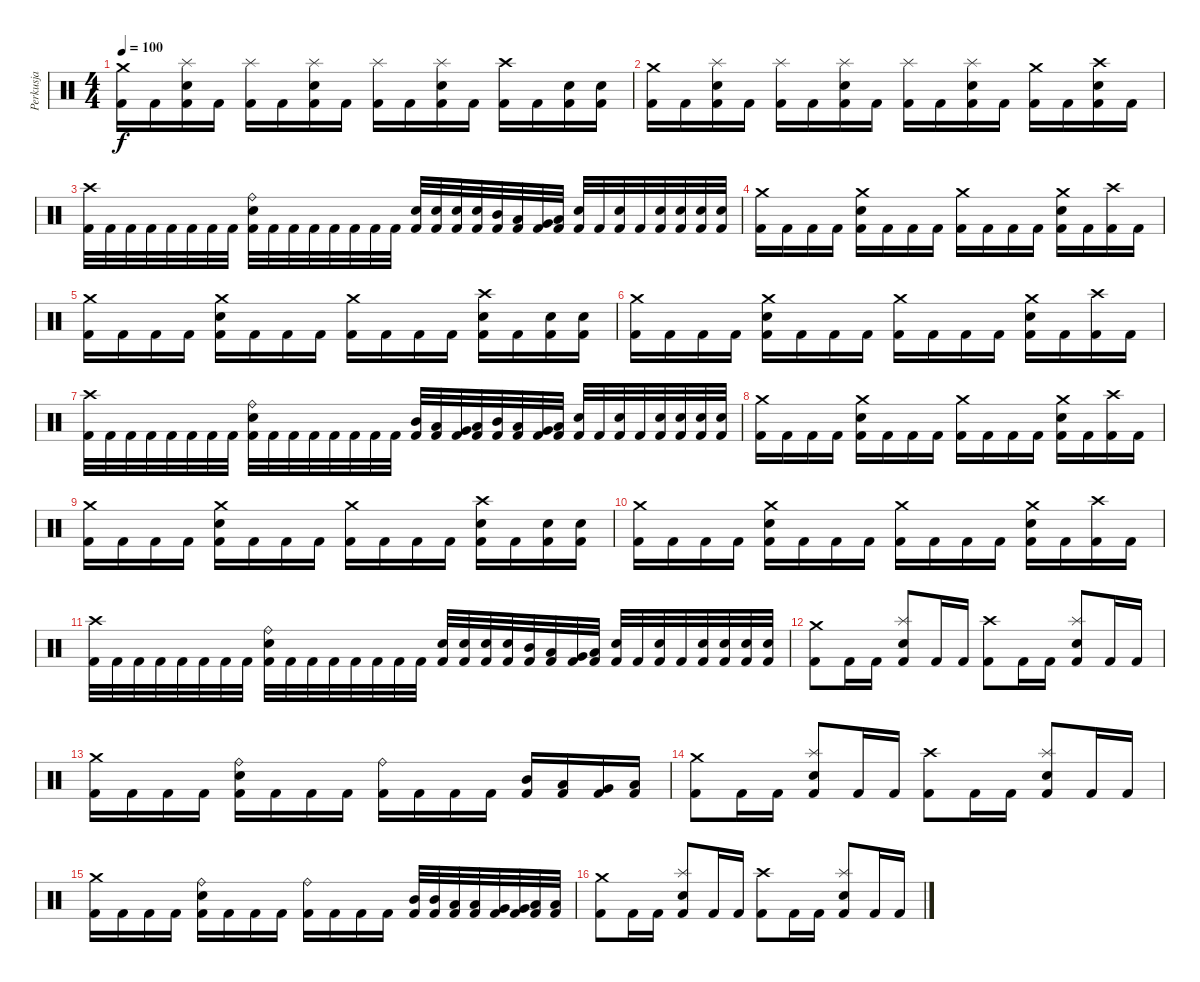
\track ("Perkusja" "Perkusja") {instrument percussion}
\staff {score}
\articulation defaults
\ts (4 4)
\tempo 100
\clef neutral
\ks c
("Crash medium (hit)" "Kick (hit) 2").16{dy f} "Kick (hit) 2".16 ("Splash (hit)" "Electric Snare (hit)" "Kick (hit) 2").16 "Kick (hit) 2".16 ("Splash (hit)" "Kick (hit) 2").16 "Kick (hit) 2".16 ("Splash (hit)" "Electric Snare (hit)" "Kick (hit) 2").16 "Kick (hit) 2".16 ("Splash (hit)" "Kick (hit) 2").16 "Kick (hit) 2".16 ("Splash (hit)" "Electric Snare (hit)" "Kick (hit) 2").16 "Kick (hit) 2".16 ("Crash high (hit)" "Kick (hit) 2").16 "Kick (hit) 2".16 ("Electric Snare (hit)" "Kick (hit) 2").16 ("Electric Snare (hit)" "Kick (hit) 2").16 |
("Crash medium (hit)" "Kick (hit) 2").16 "Kick (hit) 2".16 ("Splash (hit)" "Electric Snare (hit)" "Kick (hit) 2").16 "Kick (hit) 2".16 ("Splash (hit)" "Kick (hit) 2").16 "Kick (hit) 2".16 ("Splash (hit)" "Electric Snare (hit)" "Kick (hit) 2").16 "Kick (hit) 2".16 ("Splash (hit)" "Kick (hit) 2").16 "Kick (hit) 2".16 ("Splash (hit)" "Electric Snare (hit)" "Kick (hit) 2").16 "Kick (hit) 2".16 ("Crash medium (hit)" "Kick (hit) 2").16 "Kick (hit) 2".16 ("Crash high (hit)" "Electric Snare (hit)" "Kick (hit) 2").16 "Kick (hit) 2".16 |
("Crash high (hit)" "Kick (hit) 2").32 "Kick (hit) 2".32 "Kick (hit) 2".32 "Kick (hit) 2".32 "Kick (hit) 2".32 "Kick (hit) 2".32 "Kick (hit) 2".32 "Kick (hit) 2".32 ("Ride (bell)" "Electric Snare (hit)" "Kick (hit) 2").32 "Kick (hit) 2".32 "Kick (hit) 2".32 "Kick (hit) 2".32 "Kick (hit) 2".32 "Kick (hit) 2".32 "Kick (hit) 2".32 "Kick (hit) 2".32 ("Electric Snare (hit)" "Kick (hit) 2").32 ("Electric Snare (hit)" "Kick (hit) 2").32 ("Electric Snare (hit)" "Kick (hit) 2").32 ("Electric Snare (hit)" "Kick (hit) 2").32 ("Mid Tom (hit)" "Kick (hit) 2").32 ("Low Tom (hit)" "Kick (hit) 2").32 ("Very Low Tom (hit)" "Kick (hit) 2").32 ("Low Floor Tom (hit)" "Kick (hit) 2").32 ("Electric Snare (hit)" "Kick (hit) 2").32 "Kick (hit) 2".32 ("Electric Snare (hit)" "Kick (hit) 2").32 "Kick (hit) 2".32 ("Electric Snare (hit)" "Kick (hit) 2").32 ("Electric Snare (hit)" "Kick (hit) 2").32 ("Electric Snare (hit)" "Kick (hit) 2").32 ("Electric Snare (hit)" "Kick (hit) 2").32 |
("Crash medium (hit)" "Kick (hit) 2").16 "Kick (hit) 2".16 "Kick (hit) 2".16 "Kick (hit) 2".16 ("Crash medium (hit)" "Electric Snare (hit)" "Kick (hit) 2").16 "Kick (hit) 2".16 "Kick (hit) 2".16 "Kick (hit) 2".16 ("Crash medium (hit)" "Kick (hit) 2").16 "Kick (hit) 2".16 "Kick (hit) 2".16 "Kick (hit) 2".16 ("Crash medium (hit)" "Electric Snare (hit)" "Kick (hit) 2").16 "Kick (hit) 2".16 ("Crash high (hit)" "Kick (hit) 2").16 "Kick (hit) 2".16 |
("Crash medium (hit)" "Kick (hit) 2").16 "Kick (hit) 2".16 "Kick (hit) 2".16 "Kick (hit) 2".16 ("Crash medium (hit)" "Electric Snare (hit)" "Kick (hit) 2").16 "Kick (hit) 2".16 "Kick (hit) 2".16 "Kick (hit) 2".16 ("Crash medium (hit)" "Kick (hit) 2").16 "Kick (hit) 2".16 "Kick (hit) 2".16 "Kick (hit) 2".16 ("Crash high (hit)" "Electric Snare (hit)" "Kick (hit) 2").16 "Kick (hit) 2".16 ("Electric Snare (hit)" "Kick (hit) 2").16 ("Electric Snare (hit)" "Kick (hit) 2").16 |
("Crash medium (hit)" "Kick (hit) 2").16 "Kick (hit) 2".16 "Kick (hit) 2".16 "Kick (hit) 2".16 ("Crash medium (hit)" "Electric Snare (hit)" "Kick (hit) 2").16 "Kick (hit) 2".16 "Kick (hit) 2".16 "Kick (hit) 2".16 ("Crash medium (hit)" "Kick (hit) 2").16 "Kick (hit) 2".16 "Kick (hit) 2".16 "Kick (hit) 2".16 ("Crash medium (hit)" "Electric Snare (hit)" "Kick (hit) 2").16 "Kick (hit) 2".16 ("Crash high (hit)" "Kick (hit) 2").16 "Kick (hit) 2".16 |
("Crash high (hit)" "Kick (hit) 2").32 "Kick (hit) 2".32 "Kick (hit) 2".32 "Kick (hit) 2".32 "Kick (hit) 2".32 "Kick (hit) 2".32 "Kick (hit) 2".32 "Kick (hit) 2".32 ("Ride (bell)" "Electric Snare (hit)" "Kick (hit) 2").32 "Kick (hit) 2".32 "Kick (hit) 2".32 "Kick (hit) 2".32 "Kick (hit) 2".32 "Kick (hit) 2".32 "Kick (hit) 2".32 "Kick (hit) 2".32 ("Mid Tom (hit)" "Kick (hit) 2").32 ("Low Tom (hit)" "Kick (hit) 2").32 ("Very Low Tom (hit)" "Kick (hit) 2").32 ("Low Floor Tom (hit)" "Kick (hit) 2").32 ("Mid Tom (hit)" "Kick (hit) 2").32 ("Low Tom (hit)" "Kick (hit) 2").32 ("Very Low Tom (hit)" "Kick (hit) 2").32 ("Low Floor Tom (hit)" "Kick (hit) 2").32 ("Electric Snare (hit)" "Kick (hit) 2").32 "Kick (hit) 2".32 ("Electric Snare (hit)" "Kick (hit) 2").32 "Kick (hit) 2".32 ("Electric Snare (hit)" "Kick (hit) 2").32 ("Electric Snare (hit)" "Kick (hit) 2").32 ("Electric Snare (hit)" "Kick (hit) 2").32 ("Electric Snare (hit)" "Kick (hit) 2").32 |
("Crash medium (hit)" "Kick (hit) 2").16 "Kick (hit) 2".16 "Kick (hit) 2".16 "Kick (hit) 2".16 ("Crash medium (hit)" "Electric Snare (hit)" "Kick (hit) 2").16 "Kick (hit) 2".16 "Kick (hit) 2".16 "Kick (hit) 2".16 ("Crash medium (hit)" "Kick (hit) 2").16 "Kick (hit) 2".16 "Kick (hit) 2".16 "Kick (hit) 2".16 ("Crash medium (hit)" "Electric Snare (hit)" "Kick (hit) 2").16 "Kick (hit) 2".16 ("Crash high (hit)" "Kick (hit) 2").16 "Kick (hit) 2".16 |
("Crash medium (hit)" "Kick (hit) 2").16 "Kick (hit) 2".16 "Kick (hit) 2".16 "Kick (hit) 2".16 ("Crash medium (hit)" "Electric Snare (hit)" "Kick (hit) 2").16 "Kick (hit) 2".16 "Kick (hit) 2".16 "Kick (hit) 2".16 ("Crash medium (hit)" "Kick (hit) 2").16 "Kick (hit) 2".16 "Kick (hit) 2".16 "Kick (hit) 2".16 ("Crash high (hit)" "Electric Snare (hit)" "Kick (hit) 2").16 "Kick (hit) 2".16 ("Electric Snare (hit)" "Kick (hit) 2").16 ("Electric Snare (hit)" "Kick (hit) 2").16 |
("Crash medium (hit)" "Kick (hit) 2").16 "Kick (hit) 2".16 "Kick (hit) 2".16 "Kick (hit) 2".16 ("Crash medium (hit)" "Electric Snare (hit)" "Kick (hit) 2").16 "Kick (hit) 2".16 "Kick (hit) 2".16 "Kick (hit) 2".16 ("Crash medium (hit)" "Kick (hit) 2").16 "Kick (hit) 2".16 "Kick (hit) 2".16 "Kick (hit) 2".16 ("Crash medium (hit)" "Electric Snare (hit)" "Kick (hit) 2").16 "Kick (hit) 2".16 ("Crash high (hit)" "Kick (hit) 2").16 "Kick (hit) 2".16 |
("Crash high (hit)" "Kick (hit) 2").32 "Kick (hit) 2".32 "Kick (hit) 2".32 "Kick (hit) 2".32 "Kick (hit) 2".32 "Kick (hit) 2".32 "Kick (hit) 2".32 "Kick (hit) 2".32 ("Ride (bell)" "Electric Snare (hit)" "Kick (hit) 2").32 "Kick (hit) 2".32 "Kick (hit) 2".32 "Kick (hit) 2".32 "Kick (hit) 2".32 "Kick (hit) 2".32 "Kick (hit) 2".32 "Kick (hit) 2".32 ("Electric Snare (hit)" "Kick (hit) 2").32 ("Electric Snare (hit)" "Kick (hit) 2").32 ("Electric Snare (hit)" "Kick (hit) 2").32 ("Electric Snare (hit)" "Kick (hit) 2").32 ("Mid Tom (hit)" "Kick (hit) 2").32 ("Low Tom (hit)" "Kick (hit) 2").32 ("Very Low Tom (hit)" "Kick (hit) 2").32 ("Low Floor Tom (hit)" "Kick (hit) 2").32 ("Electric Snare (hit)" "Kick (hit) 2").32 "Kick (hit) 2".32 ("Electric Snare (hit)" "Kick (hit) 2").32 "Kick (hit) 2".32 ("Electric Snare (hit)" "Kick (hit) 2").32 ("Electric Snare (hit)" "Kick (hit) 2").32 ("Electric Snare (hit)" "Kick (hit) 2").32 ("Electric Snare (hit)" "Kick (hit) 2").32 |
("Crash medium (hit)" "Kick (hit) 2").8 "Kick (hit) 2".16 "Kick (hit) 2".16 ("Splash (hit)" "Electric Snare (hit)" "Kick (hit) 2").8 "Kick (hit) 2".16 "Kick (hit) 2".16 ("Crash high (hit)" "Kick (hit) 2").8 "Kick (hit) 2".16 "Kick (hit) 2".16 ("Splash (hit)" "Electric Snare (hit)" "Kick (hit) 2").8 "Kick (hit) 2".16 "Kick (hit) 2".16 |
("Crash medium (hit)" "Kick (hit) 2").16 "Kick (hit) 2".16 "Kick (hit) 2".16 "Kick (hit) 2".16 ("Ride (bell)" "Electric Snare (hit)" "Kick (hit) 2").16 "Kick (hit) 2".16 "Kick (hit) 2".16 "Kick (hit) 2".16 ("Ride (bell)" "Kick (hit) 2").16 "Kick (hit) 2".16 "Kick (hit) 2".16 "Kick (hit) 2".16 ("Mid Tom (hit)" "Kick (hit) 2").16 ("Low Tom (hit)" "Kick (hit) 2").16 ("Very Low Tom (hit)" "Kick (hit) 2").16 ("Low Floor Tom (hit)" "Kick (hit) 2").16 |
("Crash medium (hit)" "Kick (hit) 2").8 "Kick (hit) 2".16 "Kick (hit) 2".16 ("Splash (hit)" "Electric Snare (hit)" "Kick (hit) 2").8 "Kick (hit) 2".16 "Kick (hit) 2".16 ("Crash high (hit)" "Kick (hit) 2").8 "Kick (hit) 2".16 "Kick (hit) 2".16 ("Splash (hit)" "Electric Snare (hit)" "Kick (hit) 2").8 "Kick (hit) 2".16 "Kick (hit) 2".16 |
("Crash medium (hit)" "Kick (hit) 2").16 "Kick (hit) 2".16 "Kick (hit) 2".16 "Kick (hit) 2".16 ("Ride (bell)" "Electric Snare (hit)" "Kick (hit) 2").16 "Kick (hit) 2".16 "Kick (hit) 2".16 "Kick (hit) 2".16 ("Ride (bell)" "Kick (hit) 2").16 "Kick (hit) 2".16 "Kick (hit) 2".16 "Kick (hit) 2".16 ("Mid Tom (hit)" "Kick (hit) 2").32 ("Mid Tom (hit)" "Kick (hit) 2").32 ("Low Tom (hit)" "Kick (hit) 2").32 ("Low Tom (hit)" "Kick (hit) 2").32 ("Very Low Tom (hit)" "Kick (hit) 2").32 ("Very Low Tom (hit)" "Kick (hit) 2").32 ("Low Floor Tom (hit)" "Kick (hit) 2").32 ("Low Floor Tom (hit)" "Kick (hit) 2").32 |
("Crash medium (hit)" "Kick (hit) 2").8 "Kick (hit) 2".16 "Kick (hit) 2".16 ("Splash (hit)" "Electric Snare (hit)" "Kick (hit) 2").8 "Kick (hit) 2".16 "Kick (hit) 2".16 ("Crash high (hit)" "Kick (hit) 2").8 "Kick (hit) 2".16 "Kick (hit) 2".16 ("Splash (hit)" "Electric Snare (hit)" "Kick (hit) 2").8 "Kick (hit) 2".16 "Kick (hit) 2".16
